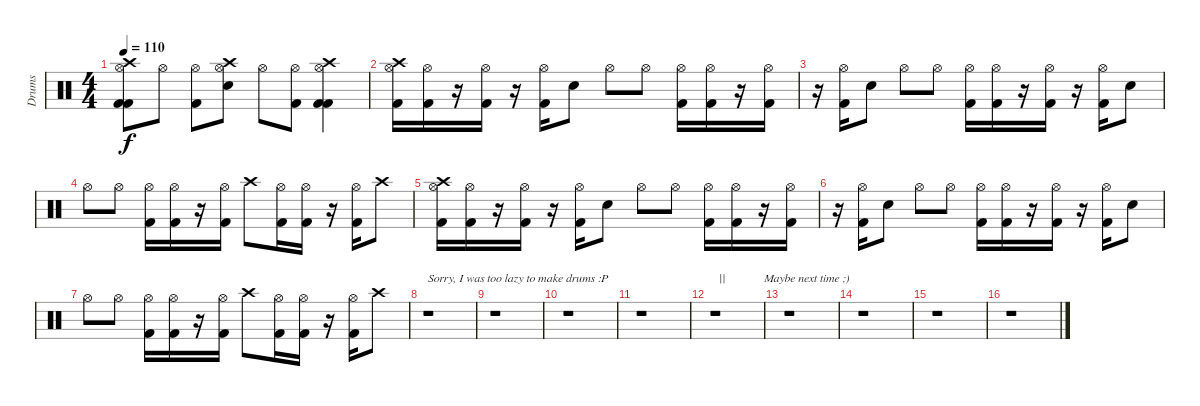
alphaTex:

\track ("Drums" "Drums") {instrument percussion}
\staff {score}
\articulation defaults
\ts (4 4)
\tempo 110
\clef neutral
\ks c
("Crash high (hit)" "Hi-Hat (open)" "Kick (hit) 2" "Kick (hit) 2").8{dy f} "Hi-Hat (open)".8 ("Hi-Hat (open)" "Kick (hit) 2").8 ("Crash high (hit)" "Hi-Hat (open)" "Electric Snare (hit)").8 "Hi-Hat (open)".8 ("Hi-Hat (open)" "Kick (hit) 2").8 ("Crash high (hit)" "Hi-Hat (open)" "Kick (hit) 2" "Kick (hit) 2").4 |
("Crash high (hit)" "Hi-Hat (open)" "Kick (hit) 2").16 ("Hi-Hat (open)" "Kick (hit) 2").16 r.16 ("Hi-Hat (open)" "Kick (hit) 2").16 r.16 ("Hi-Hat (open)" "Kick (hit) 2").16 "Electric Snare (hit)".8 "Hi-Hat (open)".8 "Hi-Hat (open)".8 ("Hi-Hat (open)" "Kick (hit) 2").16 ("Hi-Hat (open)" "Kick (hit) 2").16 r.16 ("Hi-Hat (open)" "Kick (hit) 2").16 |
r.16 ("Hi-Hat (open)" "Kick (hit) 2").16 "Electric Snare (hit)".8 "Hi-Hat (open)".8 "Hi-Hat (open)".8 ("Hi-Hat (open)" "Kick (hit) 2").16 ("Hi-Hat (open)" "Kick (hit) 2").16 r.16 ("Hi-Hat (open)" "Kick (hit) 2").16 r.16 ("Hi-Hat (open)" "Kick (hit) 2").16 "Electric Snare (hit)".8 |
"Hi-Hat (open)".8 "Hi-Hat (open)".8 ("Hi-Hat (open)" "Kick (hit) 2").16 ("Hi-Hat (open)" "Kick (hit) 2").16 r.16 ("Hi-Hat (open)" "Kick (hit) 2").16 "Crash high (hit)".8 ("Hi-Hat (open)" "Kick (hit) 2").16 ("Hi-Hat (open)" "Kick (hit) 2").16 r.16 ("Hi-Hat (open)" "Kick (hit) 2").16 "Crash high (hit)".8 |
("Crash high (hit)" "Hi-Hat (open)" "Kick (hit) 2").16 ("Hi-Hat (open)" "Kick (hit) 2").16 r.16 ("Hi-Hat (open)" "Kick (hit) 2").16 r.16 ("Hi-Hat (open)" "Kick (hit) 2").16 "Electric Snare (hit)".8 "Hi-Hat (open)".8 "Hi-Hat (open)".8 ("Hi-Hat (open)" "Kick (hit) 2").16 ("Hi-Hat (open)" "Kick (hit) 2").16 r.16 ("Hi-Hat (open)" "Kick (hit) 2").16 |
r.16 ("Hi-Hat (open)" "Kick (hit) 2").16 "Electric Snare (hit)".8 "Hi-Hat (open)".8 "Hi-Hat (open)".8 ("Hi-Hat (open)" "Kick (hit) 2").16 ("Hi-Hat (open)" "Kick (hit) 2").16 r.16 ("Hi-Hat (open)" "Kick (hit) 2").16 r.16 ("Hi-Hat (open)" "Kick (hit) 2").16 "Electric Snare (hit)".8 |
"Hi-Hat (open)".8 "Hi-Hat (open)".8 ("Hi-Hat (open)" "Kick (hit) 2").16 ("Hi-Hat (open)" "Kick (hit) 2").16 r.16 ("Hi-Hat (open)" "Kick (hit) 2").16 "Crash high (hit)".8 ("Hi-Hat (open)" "Kick (hit) 2").16 ("Hi-Hat (open)" "Kick (hit) 2").16 r.16 ("Hi-Hat (open)" "Kick (hit) 2").16 "Crash high (hit)".8 |
r.1{txt "Sorry, I was too lazy to make drums :P"} |
r.1 |
r.1 |
r.1 |
r.1{txt " ||             Maybe next time ;)"} |
r.1 |
r.1 |
r.1 |
r.1
